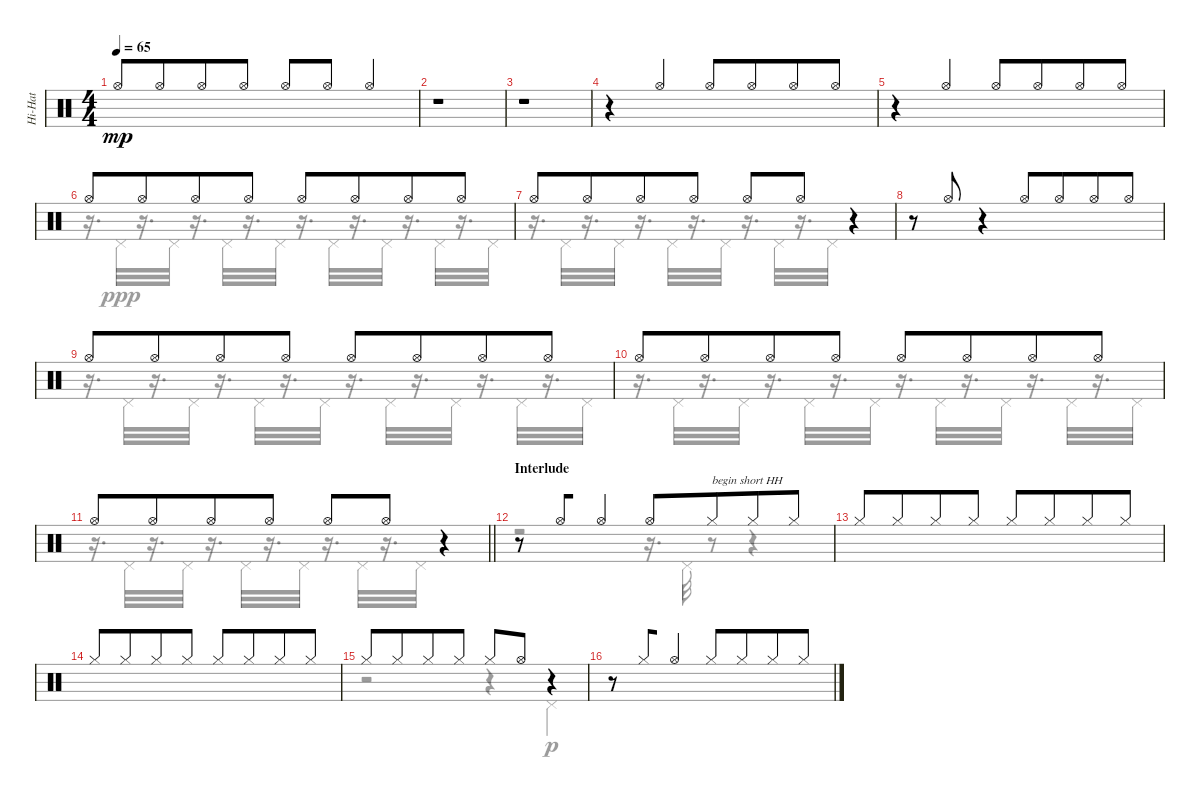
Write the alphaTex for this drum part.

\track ("Hi-Hat" "Hi-Hat") {instrument percussion}
\staff {score}
\articulation defaults
\voice
\ts (4 4)
\tempo 65
\clef neutral
\ks c "Hi-Hat (open)".8{dy mp beam Up} "Hi-Hat (open)".8{beam Up beam merge} "Hi-Hat (open)".8{beam Up} "Hi-Hat (open)".8{beam Up} "Hi-Hat (open)".8{beam Up} "Hi-Hat (open)".8{beam Up} "Hi-Hat (open)".4{beam Up}
|
r.1 |
r.1 |
r.4{beam merge} "Hi-Hat (open)".4{beam Up} "Hi-Hat (open)".8{beam Up} "Hi-Hat (open)".8{beam Up beam merge} "Hi-Hat (open)".8{beam Up} "Hi-Hat (open)".8{beam Up} |
r.4{beam merge} "Hi-Hat (open)".4{beam Up} "Hi-Hat (open)".8{beam Up} "Hi-Hat (open)".8{beam Up beam merge} "Hi-Hat (open)".8{beam Up} "Hi-Hat (open)".8{beam Up} |
"Hi-Hat (open)".8 "Hi-Hat (open)".8{beam merge} "Hi-Hat (open)".8 "Hi-Hat (open)".8 "Hi-Hat (open)".8 "Hi-Hat (open)".8{beam merge} "Hi-Hat (open)".8 "Hi-Hat (open)".8 |
"Hi-Hat (open)".8 "Hi-Hat (open)".8{beam merge} "Hi-Hat (open)".8 "Hi-Hat (open)".8 "Hi-Hat (open)".8 "Hi-Hat (open)".8 r.4 |
r.8 "Hi-Hat (open)".8{beam Up} r.4 "Hi-Hat (open)".8{beam Up} "Hi-Hat (open)".8{beam Up beam merge} "Hi-Hat (open)".8{beam Up} "Hi-Hat (open)".8{beam Up} |
"Hi-Hat (open)".8 "Hi-Hat (open)".8{beam merge} "Hi-Hat (open)".8 "Hi-Hat (open)".8 "Hi-Hat (open)".8 "Hi-Hat (open)".8{beam merge} "Hi-Hat (open)".8 "Hi-Hat (open)".8 |
"Hi-Hat (open)".8 "Hi-Hat (open)".8{beam merge} "Hi-Hat (open)".8 "Hi-Hat (open)".8 "Hi-Hat (open)".8 "Hi-Hat (open)".8{beam merge} "Hi-Hat (open)".8 "Hi-Hat (open)".8 |
\barLineRight lightlight "Hi-Hat (open)".8 "Hi-Hat (open)".8{beam merge} "Hi-Hat (open)".8 "Hi-Hat (open)".8 "Hi-Hat (open)".8 "Hi-Hat (open)".8
r.4 |
\section ("" "Interlude")
r.8 "Hi-Hat (open)".8{beam Up beam merge} "Hi-Hat (open)".4{beam Up} "Hi-Hat (open)".8{beam Up} "Hi-Hat (closed)".8{txt "begin short HH" beam Up beam merge} "Hi-Hat (closed)".8{beam Up} "Hi-Hat (closed)".8{beam Up} |
"Hi-Hat (closed)".8{beam Up} "Hi-Hat (closed)".8{beam Up beam merge} "Hi-Hat (closed)".8{beam Up} "Hi-Hat (closed)".8{beam Up} "Hi-Hat (closed)".8{beam Up} "Hi-Hat (closed)".8{beam Up beam merge} "Hi-Hat (closed)".8{beam Up} "Hi-Hat (closed)".8{beam Up} |
"Hi-Hat (closed)".8{beam Up} "Hi-Hat (closed)".8{beam Up beam merge} "Hi-Hat (closed)".8{beam Up} "Hi-Hat (closed)".8{beam Up} "Hi-Hat (closed)".8{beam Up} "Hi-Hat (closed)".8{beam Up beam merge} "Hi-Hat (closed)".8{beam Up} "Hi-Hat (closed)".8{beam Up} |
"Hi-Hat (closed)".8 "Hi-Hat (closed)".8{beam merge} "Hi-Hat (closed)".8 "Hi-Hat (closed)".8 "Hi-Hat (closed)".8 "Hi-Hat (open)".8 r.4 |
r.8 "Hi-Hat (closed)".8{beam Up beam merge} "Hi-Hat (open)".4{beam Up} "Hi-Hat (closed)".8{beam Up} "Hi-Hat (closed)".8{beam Up beam merge} "Hi-Hat (closed)".8{beam Up} "Hi-Hat (closed)".8{beam Up}
\voice
\clef neutral
\ottava regular
\simile none
\ks c
|
|
|
|
|
r.16{d} "Pedal Hi-Hat (hit)".32{dy ppp} r.16{d} "Pedal Hi-Hat (hit)".32 r.16{d} "Pedal Hi-Hat (hit)".32 r.16{d} "Pedal Hi-Hat (hit)".32 r.16{d} "Pedal Hi-Hat (hit)".32 r.16{d} "Pedal Hi-Hat (hit)".32 r.16{d} "Pedal Hi-Hat (hit)".32 r.16{d} "Pedal Hi-Hat (hit)".32 |
r.16{d} "Pedal Hi-Hat (hit)".32 r.16{d} "Pedal Hi-Hat (hit)".32 r.16{d} "Pedal Hi-Hat (hit)".32 r.16{d} "Pedal Hi-Hat (hit)".32 r.16{d} "Pedal Hi-Hat (hit)".32 r.16{d} "Pedal Hi-Hat (hit)".32 r.4 |
|
r.16{d} "Pedal Hi-Hat (hit)".32 r.16{d} "Pedal Hi-Hat (hit)".32 r.16{d} "Pedal Hi-Hat (hit)".32 r.16{d} "Pedal Hi-Hat (hit)".32 r.16{d} "Pedal Hi-Hat (hit)".32 r.16{d} "Pedal Hi-Hat (hit)".32 r.16{d} "Pedal Hi-Hat (hit)".32 r.16{d} "Pedal Hi-Hat (hit)".32 |
r.16{d} "Pedal Hi-Hat (hit)".32 r.16{d} "Pedal Hi-Hat (hit)".32 r.16{d} "Pedal Hi-Hat (hit)".32 r.16{d} "Pedal Hi-Hat (hit)".32 r.16{d} "Pedal Hi-Hat (hit)".32 r.16{d} "Pedal Hi-Hat (hit)".32 r.16{d} "Pedal Hi-Hat (hit)".32 r.16{d} "Pedal Hi-Hat (hit)".32 |
\barLineRight lightlight
r.16{d} "Pedal Hi-Hat (hit)".32 r.16{d} "Pedal Hi-Hat (hit)".32 r.16{d} "Pedal Hi-Hat (hit)".32 r.16{d} "Pedal Hi-Hat (hit)".32 r.16{d} "Pedal Hi-Hat (hit)".32 r.16{d} "Pedal Hi-Hat (hit)".32 r.4 |
r.2 r.16{d} "Pedal Hi-Hat (hit)".32 r.8 r.4 |
|
|
r.2 r.4 "Pedal Hi-Hat (hit)".4{dy p} |
